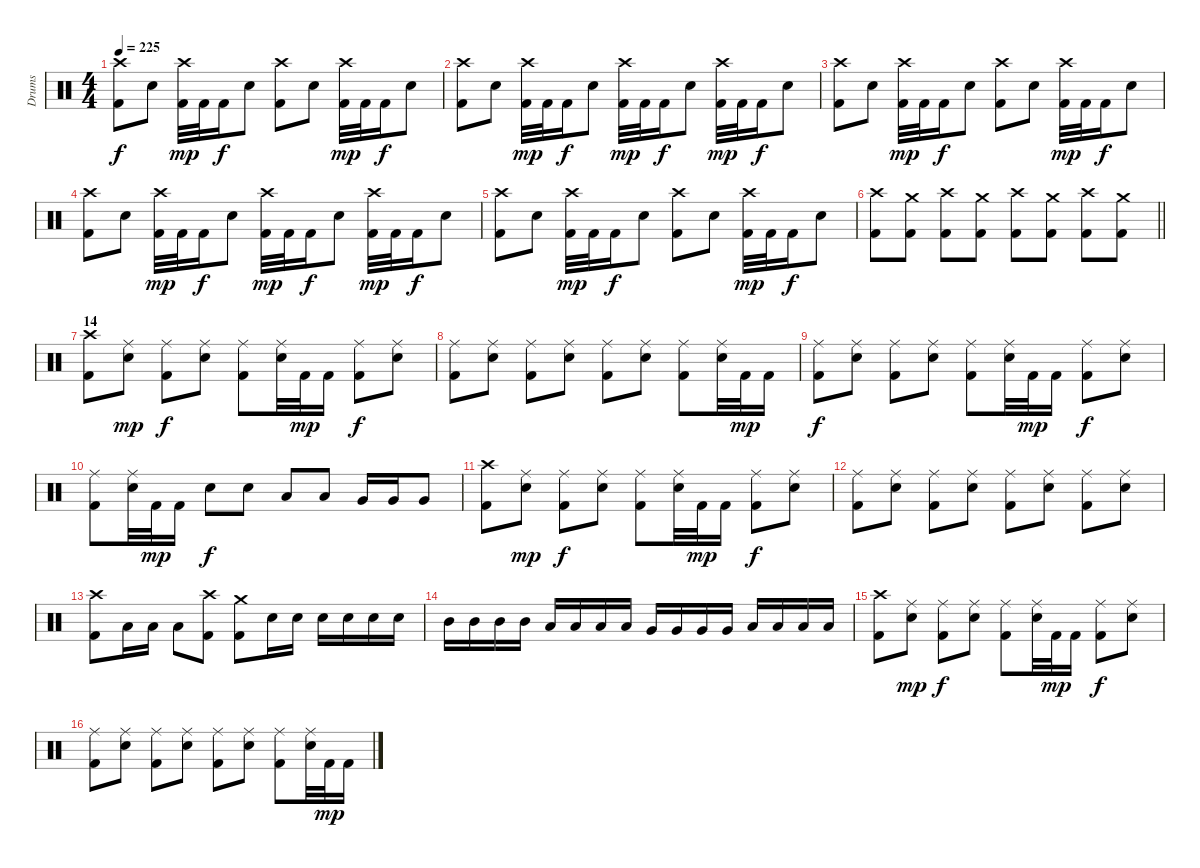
\track ("Drums" "Drums") {instrument percussion}
\staff {score}
\articulation defaults
\ts (4 4)
\tempo 225
\clef neutral
\ks c
("Crash high (hit)" "Kick (hit) 2").8{dy f} "Electric Snare (hit)".8 ("Crash high (hit)" "Kick (hit) 2").32{dy mp} "Kick (hit) 2".32 "Kick (hit) 2".16{dy f} "Electric Snare (hit)".8 ("Crash high (hit)" "Kick (hit) 2").8 "Electric Snare (hit)".8 ("Crash high (hit)" "Kick (hit) 2").32{dy mp} "Kick (hit) 2".32 "Kick (hit) 2".16{dy f} "Electric Snare (hit)".8 |
("Crash high (hit)" "Kick (hit) 2").8 "Electric Snare (hit)".8 ("Crash high (hit)" "Kick (hit) 2").32{dy mp} "Kick (hit) 2".32 "Kick (hit) 2".16{dy f} "Electric Snare (hit)".8 ("Crash high (hit)" "Kick (hit) 2").32{dy mp} "Kick (hit) 2".32 "Kick (hit) 2".16{dy f} "Electric Snare (hit)".8 ("Crash high (hit)" "Kick (hit) 2").32{dy mp} "Kick (hit) 2".32 "Kick (hit) 2".16{dy f} "Electric Snare (hit)".8 |
("Crash high (hit)" "Kick (hit) 2").8 "Electric Snare (hit)".8 ("Crash high (hit)" "Kick (hit) 2").32{dy mp} "Kick (hit) 2".32 "Kick (hit) 2".16{dy f} "Electric Snare (hit)".8 ("Crash high (hit)" "Kick (hit) 2").8 "Electric Snare (hit)".8 ("Crash high (hit)" "Kick (hit) 2").32{dy mp} "Kick (hit) 2".32 "Kick (hit) 2".16{dy f} "Electric Snare (hit)".8 |
("Crash high (hit)" "Kick (hit) 2").8 "Electric Snare (hit)".8 ("Crash high (hit)" "Kick (hit) 2").32{dy mp} "Kick (hit) 2".32 "Kick (hit) 2".16{dy f} "Electric Snare (hit)".8 ("Crash high (hit)" "Kick (hit) 2").32{dy mp} "Kick (hit) 2".32 "Kick (hit) 2".16{dy f} "Electric Snare (hit)".8 ("Crash high (hit)" "Kick (hit) 2").32{dy mp} "Kick (hit) 2".32 "Kick (hit) 2".16{dy f} "Electric Snare (hit)".8 |
("Crash high (hit)" "Kick (hit) 2").8 "Electric Snare (hit)".8 ("Crash high (hit)" "Kick (hit) 2").32{dy mp} "Kick (hit) 2".32 "Kick (hit) 2".16{dy f} "Electric Snare (hit)".8 ("Crash high (hit)" "Kick (hit) 2").8 "Electric Snare (hit)".8 ("Crash high (hit)" "Kick (hit) 2").32{dy mp} "Kick (hit) 2".32 "Kick (hit) 2".16{dy f} "Electric Snare (hit)".8 |
\barLineRight lightlight
("Crash high (hit)" "Kick (hit) 2").8 ("Crash medium (hit)" "Kick (hit) 2").8 ("Crash high (hit)" "Kick (hit) 2").8 ("Crash medium (hit)" "Kick (hit) 2").8 ("Crash high (hit)" "Kick (hit) 2").8 ("Crash medium (hit)" "Kick (hit) 2").8 ("Crash high (hit)" "Kick (hit) 2").8 ("Crash medium (hit)" "Kick (hit) 2").8 |
\section ("" "14")
("Crash high (hit)" "Kick (hit) 2").8 ("Ride (middle)" "Electric Snare (hit)").8{dy mp} ("Ride (middle)" "Kick (hit) 2").8{dy f} ("Ride (middle)" "Electric Snare (hit)").8 ("Ride (middle)" "Kick (hit) 2").8 ("Ride (middle)" "Electric Snare (hit)").32 "Kick (hit) 2".32{dy mp} "Kick (hit) 2".16 ("Ride (middle)" "Kick (hit) 2").8{dy f} ("Ride (middle)" "Electric Snare (hit)").8 |
("Ride (middle)" "Kick (hit) 2").8 ("Ride (middle)" "Electric Snare (hit)").8 ("Ride (middle)" "Kick (hit) 2").8 ("Ride (middle)" "Electric Snare (hit)").8 ("Ride (middle)" "Kick (hit) 2").8 ("Ride (middle)" "Electric Snare (hit)").8 ("Ride (middle)" "Kick (hit) 2").8 ("Ride (middle)" "Electric Snare (hit)").32 "Kick (hit) 2".32{dy mp} "Kick (hit) 2".16 |
("Ride (middle)" "Kick (hit) 2").8{dy f} ("Ride (middle)" "Electric Snare (hit)").8 ("Ride (middle)" "Kick (hit) 2").8 ("Ride (middle)" "Electric Snare (hit)").8 ("Ride (middle)" "Kick (hit) 2").8 ("Ride (middle)" "Electric Snare (hit)").32 "Kick (hit) 2".32{dy mp} "Kick (hit) 2".16 ("Ride (middle)" "Kick (hit) 2").8{dy f} ("Ride (middle)" "Electric Snare (hit)").8 |
("Ride (middle)" "Kick (hit) 2").8 ("Ride (middle)" "Electric Snare (hit)").32 "Kick (hit) 2".32{dy mp} "Kick (hit) 2".16 "Electric Snare (hit)".8{dy f} "Electric Snare (hit)".8 "Low Tom (hit)".8 "Low Tom (hit)".8 "Very Low Tom (hit)".16 "Very Low Tom (hit)".16 "Very Low Tom (hit)".8 |
("Crash high (hit)" "Kick (hit) 2").8 ("Ride (middle)" "Electric Snare (hit)").8{dy mp} ("Ride (middle)" "Kick (hit) 2").8{dy f} ("Ride (middle)" "Electric Snare (hit)").8 ("Ride (middle)" "Kick (hit) 2").8 ("Ride (middle)" "Electric Snare (hit)").32 "Kick (hit) 2".32{dy mp} "Kick (hit) 2".16 ("Ride (middle)" "Kick (hit) 2").8{dy f} ("Ride (middle)" "Electric Snare (hit)").8 |
("Ride (middle)" "Kick (hit) 2").8 ("Ride (middle)" "Electric Snare (hit)").8 ("Ride (middle)" "Kick (hit) 2").8 ("Ride (middle)" "Electric Snare (hit)").8 ("Ride (middle)" "Kick (hit) 2").8 ("Ride (middle)" "Electric Snare (hit)").8 ("Ride (middle)" "Kick (hit) 2").8 ("Ride (middle)" "Electric Snare (hit)").8 |
("Crash high (hit)" "Kick (hit) 2").8 "Low Tom (hit)".16 "Low Tom (hit)".16 "Low Tom (hit)".8 ("Crash high (hit)" "Kick (hit) 2").8 ("Crash medium (hit)" "Kick (hit) 2").8 "Electric Snare (hit)".16 "Electric Snare (hit)".16 "Electric Snare (hit)".16 "Electric Snare (hit)".16 "Electric Snare (hit)".16 "Electric Snare (hit)".16 |
"Mid Tom (hit)".16 "Mid Tom (hit)".16 "Mid Tom (hit)".16 "Mid Tom (hit)".16 "Low Tom (hit)".16 "Low Tom (hit)".16 "Low Tom (hit)".16 "Low Tom (hit)".16 "Very Low Tom (hit)".16 "Very Low Tom (hit)".16 "Very Low Tom (hit)".16 "Very Low Tom (hit)".16 "Low Floor Tom (hit)".16 "Low Floor Tom (hit)".16 "Low Floor Tom (hit)".16 "Low Floor Tom (hit)".16 |
("Crash high (hit)" "Kick (hit) 2").8 ("Ride (middle)" "Electric Snare (hit)").8{dy mp} ("Ride (middle)" "Kick (hit) 2").8{dy f} ("Ride (middle)" "Electric Snare (hit)").8 ("Ride (middle)" "Kick (hit) 2").8 ("Ride (middle)" "Electric Snare (hit)").32 "Kick (hit) 2".32{dy mp} "Kick (hit) 2".16 ("Ride (middle)" "Kick (hit) 2").8{dy f} ("Ride (middle)" "Electric Snare (hit)").8 |
("Ride (middle)" "Kick (hit) 2").8 ("Ride (middle)" "Electric Snare (hit)").8 ("Ride (middle)" "Kick (hit) 2").8 ("Ride (middle)" "Electric Snare (hit)").8 ("Ride (middle)" "Kick (hit) 2").8 ("Ride (middle)" "Electric Snare (hit)").8 ("Ride (middle)" "Kick (hit) 2").8 ("Ride (middle)" "Electric Snare (hit)").32 "Kick (hit) 2".32{dy mp} "Kick (hit) 2".16
